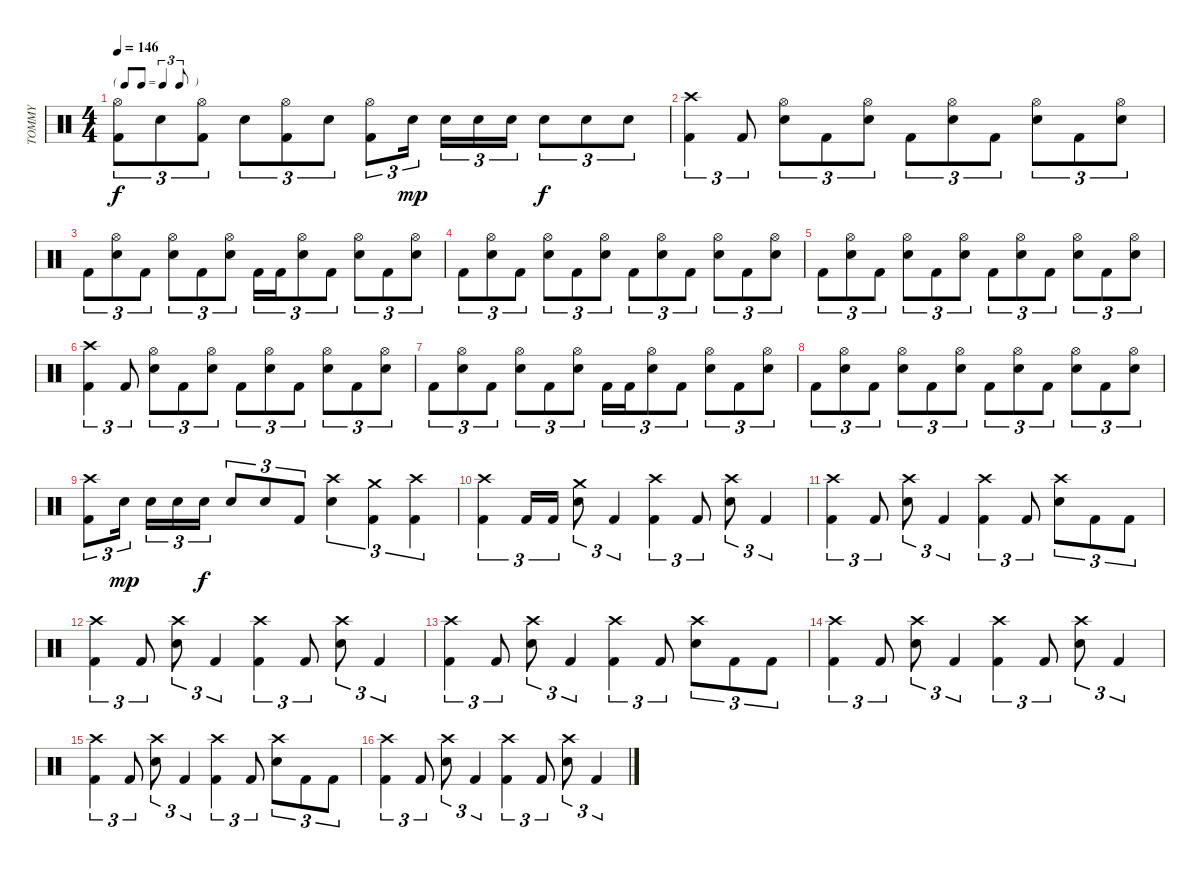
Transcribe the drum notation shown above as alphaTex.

\track ("TOMMY" "TOMMY") {instrument percussion}
\staff {score}
\articulation defaults
\ts (4 4)
\tf triplet8th
\tempo 146
\clef neutral
\ks c
("Kick (hit) 2" "Hi-Hat (open)").8{tu (3 2) dy f} "Snare (hit) 2".8{tu (3 2)} ("Kick (hit) 2" "Hi-Hat (open)").8{tu (3 2)} "Snare (hit) 2".8{tu (3 2)} ("Kick (hit) 2" "Hi-Hat (open)").8{tu (3 2)} "Snare (hit) 2".8{tu (3 2)} ("Kick (hit) 2" "Hi-Hat (open)").8{tu (3 2)} "Snare (hit) 2".16{tu (3 2) dy mp} "Snare (hit) 2".16{tu (3 2)} "Snare (hit) 2".16{tu (3 2)} "Snare (hit) 2".16{tu (3 2)} "Snare (hit) 2".8{tu (3 2) dy f} "Snare (hit) 2".8{tu (3 2)} "Snare (hit) 2".8{tu (3 2)} |
("Kick (hit) 2" "Crash high (hit)").4{tu (3 2)} "Kick (hit) 2".8{tu (3 2)} ("Snare (hit) 2" "Hi-Hat (open)").8{tu (3 2)} "Kick (hit) 2".8{tu (3 2)} ("Snare (hit) 2" "Hi-Hat (open)").8{tu (3 2)} "Kick (hit) 2".8{tu (3 2)} ("Snare (hit) 2" "Hi-Hat (open)").8{tu (3 2)} "Kick (hit) 2".8{tu (3 2)} ("Snare (hit) 2" "Hi-Hat (open)").8{tu (3 2)} "Kick (hit) 2".8{tu (3 2)} ("Snare (hit) 2" "Hi-Hat (open)").8{tu (3 2)} |
"Kick (hit) 2".8{tu (3 2)} ("Snare (hit) 2" "Hi-Hat (open)").8{tu (3 2)} "Kick (hit) 2".8{tu (3 2)} ("Snare (hit) 2" "Hi-Hat (open)").8{tu (3 2)} "Kick (hit) 2".8{tu (3 2)} ("Snare (hit) 2" "Hi-Hat (open)").8{tu (3 2)} "Kick (hit) 2".16{tu (3 2)} "Kick (hit) 2".16{tu (3 2)} ("Snare (hit) 2" "Hi-Hat (open)").8{tu (3 2)} "Kick (hit) 2".8{tu (3 2)} ("Snare (hit) 2" "Hi-Hat (open)").8{tu (3 2)} "Kick (hit) 2".8{tu (3 2)} ("Snare (hit) 2" "Hi-Hat (open)").8{tu (3 2)} |
"Kick (hit) 2".8{tu (3 2)} ("Snare (hit) 2" "Hi-Hat (open)").8{tu (3 2)} "Kick (hit) 2".8{tu (3 2)} ("Snare (hit) 2" "Hi-Hat (open)").8{tu (3 2)} "Kick (hit) 2".8{tu (3 2)} ("Snare (hit) 2" "Hi-Hat (open)").8{tu (3 2)} "Kick (hit) 2".8{tu (3 2)} ("Snare (hit) 2" "Hi-Hat (open)").8{tu (3 2)} "Kick (hit) 2".8{tu (3 2)} ("Snare (hit) 2" "Hi-Hat (open)").8{tu (3 2)} "Kick (hit) 2".8{tu (3 2)} ("Snare (hit) 2" "Hi-Hat (open)").8{tu (3 2)} |
"Kick (hit) 2".8{tu (3 2)} ("Snare (hit) 2" "Hi-Hat (open)").8{tu (3 2)} "Kick (hit) 2".8{tu (3 2)} ("Snare (hit) 2" "Hi-Hat (open)").8{tu (3 2)} "Kick (hit) 2".8{tu (3 2)} ("Snare (hit) 2" "Hi-Hat (open)").8{tu (3 2)} "Kick (hit) 2".8{tu (3 2)} ("Snare (hit) 2" "Hi-Hat (open)").8{tu (3 2)} "Kick (hit) 2".8{tu (3 2)} ("Snare (hit) 2" "Hi-Hat (open)").8{tu (3 2)} "Kick (hit) 2".8{tu (3 2)} ("Snare (hit) 2" "Hi-Hat (open)").8{tu (3 2)} |
("Kick (hit) 2" "Crash high (hit)").4{tu (3 2)} "Kick (hit) 2".8{tu (3 2)} ("Snare (hit) 2" "Hi-Hat (open)").8{tu (3 2)} "Kick (hit) 2".8{tu (3 2)} ("Snare (hit) 2" "Hi-Hat (open)").8{tu (3 2)} "Kick (hit) 2".8{tu (3 2)} ("Snare (hit) 2" "Hi-Hat (open)").8{tu (3 2)} "Kick (hit) 2".8{tu (3 2)} ("Snare (hit) 2" "Hi-Hat (open)").8{tu (3 2)} "Kick (hit) 2".8{tu (3 2)} ("Snare (hit) 2" "Hi-Hat (open)").8{tu (3 2)} |
"Kick (hit) 2".8{tu (3 2)} ("Snare (hit) 2" "Hi-Hat (open)").8{tu (3 2)} "Kick (hit) 2".8{tu (3 2)} ("Snare (hit) 2" "Hi-Hat (open)").8{tu (3 2)} "Kick (hit) 2".8{tu (3 2)} ("Snare (hit) 2" "Hi-Hat (open)").8{tu (3 2)} "Kick (hit) 2".16{tu (3 2)} "Kick (hit) 2".16{tu (3 2)} ("Snare (hit) 2" "Hi-Hat (open)").8{tu (3 2)} "Kick (hit) 2".8{tu (3 2)} ("Snare (hit) 2" "Hi-Hat (open)").8{tu (3 2)} "Kick (hit) 2".8{tu (3 2)} ("Snare (hit) 2" "Hi-Hat (open)").8{tu (3 2)} |
"Kick (hit) 2".8{tu (3 2)} ("Snare (hit) 2" "Hi-Hat (open)").8{tu (3 2)} "Kick (hit) 2".8{tu (3 2)} ("Snare (hit) 2" "Hi-Hat (open)").8{tu (3 2)} "Kick (hit) 2".8{tu (3 2)} ("Snare (hit) 2" "Hi-Hat (open)").8{tu (3 2)} "Kick (hit) 2".8{tu (3 2)} ("Snare (hit) 2" "Hi-Hat (open)").8{tu (3 2)} "Kick (hit) 2".8{tu (3 2)} ("Snare (hit) 2" "Hi-Hat (open)").8{tu (3 2)} "Kick (hit) 2".8{tu (3 2)} ("Snare (hit) 2" "Hi-Hat (open)").8{tu (3 2)} |
("Kick (hit) 2" "Crash high (hit)").8{tu (3 2)} "Snare (hit) 2".16{tu (3 2) dy mp} "Snare (hit) 2".16{tu (3 2)} "Snare (hit) 2".16{tu (3 2)} "Snare (hit) 2".16{tu (3 2) dy f} "Snare (hit) 2".8{tu (3 2)} "Snare (hit) 2".8{tu (3 2)} "Kick (hit) 2".8{tu (3 2)} ("Snare (hit) 2" "Crash high (hit)").4{tu (3 2)} ("Kick (hit) 2" "Crash medium (hit)").4{tu (3 2)} ("Kick (hit) 2" "Crash high (hit)").4{tu (3 2)} |
("Kick (hit) 2" "Crash high (hit)").4{tu (3 2)} "Kick (hit) 2".16{tu (3 2)} "Kick (hit) 2".16{tu (3 2)} ("Snare (hit) 2" "Crash medium (hit)").8{tu (3 2)} "Kick (hit) 2".4{tu (3 2)} ("Kick (hit) 2" "Crash high (hit)").4{tu (3 2)} "Kick (hit) 2".8{tu (3 2)} ("Snare (hit) 2" "Crash high (hit)").8{tu (3 2)} "Kick (hit) 2".4{tu (3 2)} |
("Kick (hit) 2" "Crash high (hit)").4{tu (3 2)} "Kick (hit) 2".8{tu (3 2)} ("Snare (hit) 2" "Crash high (hit)").8{tu (3 2)} "Kick (hit) 2".4{tu (3 2)} ("Kick (hit) 2" "Crash high (hit)").4{tu (3 2)} "Kick (hit) 2".8{tu (3 2)} ("Snare (hit) 2" "Crash high (hit)").8{tu (3 2)} "Kick (hit) 2".8{tu (3 2)} "Kick (hit) 2".8{tu (3 2)} |
("Kick (hit) 2" "Crash high (hit)").4{tu (3 2)} "Kick (hit) 2".8{tu (3 2)} ("Snare (hit) 2" "Crash high (hit)").8{tu (3 2)} "Kick (hit) 2".4{tu (3 2)} ("Kick (hit) 2" "Crash high (hit)").4{tu (3 2)} "Kick (hit) 2".8{tu (3 2)} ("Snare (hit) 2" "Crash high (hit)").8{tu (3 2)} "Kick (hit) 2".4{tu (3 2)} |
("Kick (hit) 2" "Crash high (hit)").4{tu (3 2)} "Kick (hit) 2".8{tu (3 2)} ("Snare (hit) 2" "Crash high (hit)").8{tu (3 2)} "Kick (hit) 2".4{tu (3 2)} ("Kick (hit) 2" "Crash high (hit)").4{tu (3 2)} "Kick (hit) 2".8{tu (3 2)} ("Snare (hit) 2" "Crash high (hit)").8{tu (3 2)} "Kick (hit) 2".8{tu (3 2)} "Kick (hit) 2".8{tu (3 2)} |
("Kick (hit) 2" "Crash high (hit)").4{tu (3 2)} "Kick (hit) 2".8{tu (3 2)} ("Snare (hit) 2" "Crash high (hit)").8{tu (3 2)} "Kick (hit) 2".4{tu (3 2)} ("Kick (hit) 2" "Crash high (hit)").4{tu (3 2)} "Kick (hit) 2".8{tu (3 2)} ("Snare (hit) 2" "Crash high (hit)").8{tu (3 2)} "Kick (hit) 2".4{tu (3 2)} |
("Kick (hit) 2" "Crash high (hit)").4{tu (3 2)} "Kick (hit) 2".8{tu (3 2)} ("Snare (hit) 2" "Crash high (hit)").8{tu (3 2)} "Kick (hit) 2".4{tu (3 2)} ("Kick (hit) 2" "Crash high (hit)").4{tu (3 2)} "Kick (hit) 2".8{tu (3 2)} ("Snare (hit) 2" "Crash high (hit)").8{tu (3 2)} "Kick (hit) 2".8{tu (3 2)} "Kick (hit) 2".8{tu (3 2)} |
("Kick (hit) 2" "Crash high (hit)").4{tu (3 2)} "Kick (hit) 2".8{tu (3 2)} ("Snare (hit) 2" "Crash high (hit)").8{tu (3 2)} "Kick (hit) 2".4{tu (3 2)} ("Kick (hit) 2" "Crash high (hit)").4{tu (3 2)} "Kick (hit) 2".8{tu (3 2)} ("Snare (hit) 2" "Crash high (hit)").8{tu (3 2)} "Kick (hit) 2".4{tu (3 2)}
